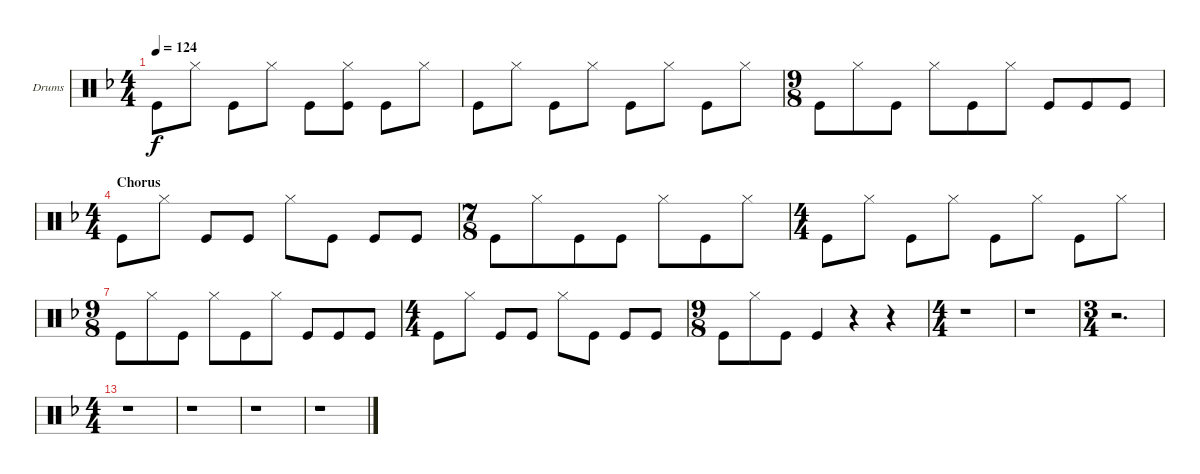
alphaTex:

\bracketExtendMode nobrackets
\firstSystemTrackNameOrientation horizontal
\otherSystemsTrackNameOrientation horizontal
\defaultBarNumberDisplay FirstOfSystem
\track ("Drumkit" "Drums") {instrument percussion}
\staff {score}
\articulation defaults
\ts (4 4)
\tempo 124
\clef neutral
\ks f "Kick (hit)".8{dy f} "Hi-Hat (closed)".8 "Kick (hit)".8 "Hi-Hat (closed)".8 "Kick (hit)".8
("Hi-Hat (closed)" "Kick (hit)").8 "Kick (hit)".8 "Hi-Hat (closed)".8 |
"Kick (hit)".8 "Hi-Hat (closed)".8 "Kick (hit)".8 "Hi-Hat (closed)".8 "Kick (hit)".8 "Hi-Hat (closed)".8 "Kick (hit)".8 "Hi-Hat (closed)".8 |
\ts (9 8)
"Kick (hit)".8 "Hi-Hat (closed)".8 "Kick (hit)".8 "Hi-Hat (closed)".8 "Kick (hit)".8 "Hi-Hat (closed)".8 "Kick (hit)".8 "Kick (hit)".8 "Kick (hit)".8 |
\ts (4 4)
\section ("" "Chorus")
"Kick (hit)".8 "Hi-Hat (closed)".8 "Kick (hit)".8 "Kick (hit)".8 "Hi-Hat (closed)".8 "Kick (hit)".8 "Kick (hit)".8 "Kick (hit)".8 |
\ts (7 8)
"Kick (hit)".8 "Hi-Hat (closed)".8 "Kick (hit)".8 "Kick (hit)".8 "Hi-Hat (closed)".8 "Kick (hit)".8 "Hi-Hat (closed)".8 |
\ts (4 4)
"Kick (hit)".8 "Hi-Hat (closed)".8 "Kick (hit)".8 "Hi-Hat (closed)".8 "Kick (hit)".8 "Hi-Hat (closed)".8 "Kick (hit)".8 "Hi-Hat (closed)".8 |
\ts (9 8)
"Kick (hit)".8 "Hi-Hat (closed)".8 "Kick (hit)".8 "Hi-Hat (closed)".8 "Kick (hit)".8 "Hi-Hat (closed)".8 "Kick (hit)".8 "Kick (hit)".8 "Kick (hit)".8 |
\ts (4 4)
"Kick (hit)".8 "Hi-Hat (closed)".8 "Kick (hit)".8 "Kick (hit)".8 "Hi-Hat (closed)".8 "Kick (hit)".8 "Kick (hit)".8 "Kick (hit)".8 |
\ts (9 8)
"Kick (hit)".8 "Hi-Hat (closed)".8 "Kick (hit)".8 "Kick (hit)".4 r.4 r.4 |
\ts (4 4)
r.1 |
r.1 |
\ts (3 4)
r.2{d} |
\ts (4 4)
r.1 |
r.1 |
r.1 |
r.1
